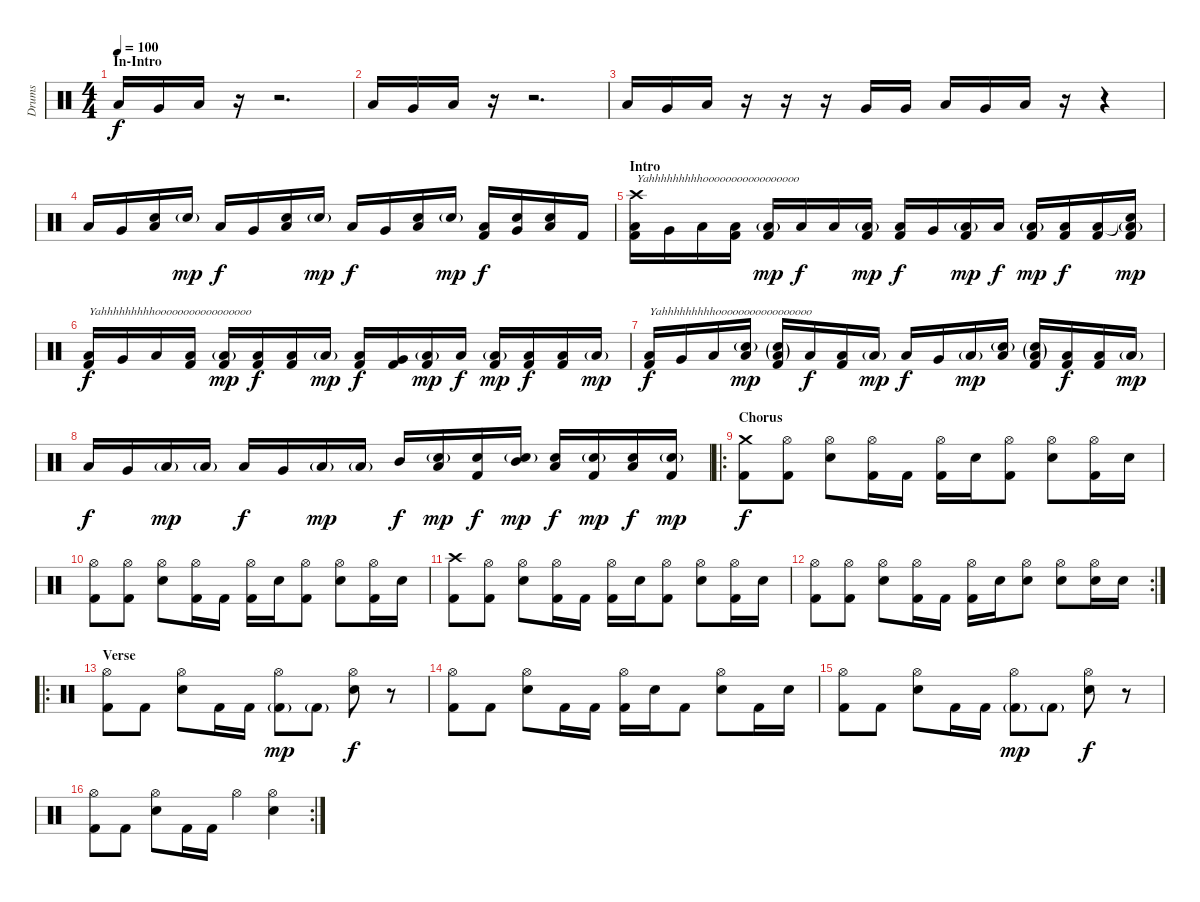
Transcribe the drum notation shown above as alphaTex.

\track ("Drums" "Drums") {instrument percussion}
\staff {score}
\articulation defaults
\ts (4 4)
\section ("" "In-Intro")
\tempo 100
\clef neutral
\ks c "Low Tom (hit)".16{dy f} "Very Low Tom (hit)".16 "Low Floor Tom (hit)".16
r.16 r.2{d} |
"Low Tom (hit)".16 "Very Low Tom (hit)".16 "Low Floor Tom (hit)".16 r.16 r.2{d} |
"Low Tom (hit)".16 "Very Low Tom (hit)".16 "Low Floor Tom (hit)".16 r.16 r.16 r.16 "Very Low Tom (hit)".16 "Very Low Tom (hit)".16 "Low Tom (hit)".16 "Very Low Tom (hit)".16 "Low Floor Tom (hit)".16 r.16 r.4 |
"Low Tom (hit)".16 "Very Low Tom (hit)".16 ("Snare (hit) 2" "Low Floor Tom (hit)").16 "Snare (hit) 2"{g}.16{dy mp} "Low Tom (hit)".16{dy f} "Very Low Tom (hit)".16 ("Snare (hit) 2" "Low Floor Tom (hit)").16 "Snare (hit) 2"{g}.16{dy mp} "Low Tom (hit)".16{dy f} "Very Low Tom (hit)".16 ("Snare (hit) 2" "Low Floor Tom (hit)").16 "Snare (hit) 2"{g}.16{dy mp} ("Kick (hit) 2" "Low Tom (hit)").16{dy f} ("Snare (hit) 2" "Very Low Tom (hit)").16 ("Snare (hit) 2" "Low Floor Tom (hit)").16 "Kick (hit) 2".16 |
\section ("" "Intro")
("Kick (hit) 2" "Crash high (hit)" "Low Tom (hit)").16{txt "Yahhhhhhhhhooooooooooooooooo" volume 10} "Very Low Tom (hit)".16 "Low Floor Tom (hit)".16 ("Kick (hit) 2" "Low Floor Tom (hit)").16 ("Kick (hit) 2" "Low Floor Tom (hit)"{g}).16{dy mp} "Low Floor Tom (hit)".16{dy f} "Low Floor Tom (hit)".16 ("Kick (hit) 2" "Low Floor Tom (hit)"{g}).16{dy mp} ("Kick (hit) 2" "Low Tom (hit)").16{dy f} "Very Low Tom (hit)".16 ("Kick (hit) 2" "Low Floor Tom (hit)"{g}).16{dy mp} "Low Floor Tom (hit)".16{dy f} ("Kick (hit) 2" "Low Floor Tom (hit)"{g}).16{dy mp} ("Kick (hit) 2" "Low Floor Tom (hit)").16{dy f} ("Kick (hit) 2" "Low Floor Tom (hit)").16 ("Kick (hit) 2" "Snare (hit)"{t} "Low Floor Tom (hit)"{g}).16{dy mp} |
("Kick (hit) 2" "Low Tom (hit)").16{txt "Yahhhhhhhhhooooooooooooooooo" dy f volume 12} "Very Low Tom (hit)".16 "Low Floor Tom (hit)".16 ("Kick (hit) 2" "Low Floor Tom (hit)").16 ("Kick (hit) 2" "Low Floor Tom (hit)"{g}).16{dy mp} ("Kick (hit) 2" "Low Floor Tom (hit)").16{dy f} ("Kick (hit) 2" "Low Floor Tom (hit)").16 "Low Floor Tom (hit)"{g}.16{dy mp} ("Kick (hit) 2" "Low Tom (hit)").16{dy f} ("Kick (hit) 2" "Very Low Tom (hit)").16 ("Kick (hit) 2" "Low Floor Tom (hit)"{g}).16{dy mp} "Low Floor Tom (hit)".16{dy f} ("Kick (hit) 2" "Low Floor Tom (hit)"{g}).16{dy mp} ("Kick (hit) 2" "Low Floor Tom (hit)").16{dy f} ("Kick (hit) 2" "Low Floor Tom (hit)").16 "Low Floor Tom (hit)"{g}.16{dy mp} |
("Kick (hit) 2" "Low Tom (hit)").16{txt "Yahhhhhhhhhooooooooooooooooo" dy f volume 14} "Very Low Tom (hit)".16 "Low Floor Tom (hit)".16 ("Snare (hit) 2"{g} "Low Floor Tom (hit)").16{dy mp} ("Kick (hit) 2" "Snare (hit) 2"{g} "Low Floor Tom (hit)"{g}).16 "Low Floor Tom (hit)".16{dy f} ("Kick (hit) 2" "Low Floor Tom (hit)").16 "Low Floor Tom (hit)"{g}.16{dy mp} "Low Tom (hit)".16{dy f} "Very Low Tom (hit)".16 "Low Floor Tom (hit)"{g}.16{dy mp} ("Snare (hit) 2"{g} "Low Floor Tom (hit)").16 ("Kick (hit) 2" "Snare (hit) 2"{g} "Low Floor Tom (hit)"{g}).16 ("Kick (hit) 2" "Low Floor Tom (hit)").16{dy f} ("Kick (hit) 2" "Low Floor Tom (hit)").16 "Low Floor Tom (hit)"{g}.16{dy mp} |
"Low Tom (hit)".16{dy f volume 16} "Very Low Tom (hit)".16 "Low Floor Tom (hit)"{g}.16{dy mp} "Low Floor Tom (hit)"{g}.16 "Low Tom (hit)".16{dy f} "Very Low Tom (hit)".16 "Low Floor Tom (hit)"{g}.16{dy mp} "Low Floor Tom (hit)"{g}.16 "Mid Tom (hit)".16{dy f} ("Snare (hit) 2"{g} "Low Tom (hit)").16{dy mp} ("Snare (hit) 2" "Kick (hit) 2").16{dy f} ("Snare (hit) 2"{g} "Mid Tom (hit)").16{dy mp} ("Snare (hit) 2" "Low Floor Tom (hit)").16{dy f} ("Snare (hit) 2"{g} "Kick (hit) 2").16{dy mp} ("Snare (hit) 2" "Low Floor Tom (hit)").16{dy f} ("Snare (hit) 2"{g} "Kick (hit) 2").16{dy mp} |
\ro
\section ("" "Chorus")
("Crash medium (hit)" "Kick (hit) 2").8{dy f} ("Hi-Hat (open)" "Kick (hit) 2").8 ("Hi-Hat (open)" "Snare (hit) 2").8 ("Hi-Hat (open)" "Kick (hit) 2").16 "Kick (hit) 2".16 ("Hi-Hat (open)" "Kick (hit) 2").16 "Snare (hit) 2".16 ("Hi-Hat (open)" "Kick (hit) 2").8 ("Hi-Hat (open)" "Snare (hit) 2").8 ("Hi-Hat (open)" "Kick (hit) 2").16 "Snare (hit) 2".16 |
("Hi-Hat (open)" "Kick (hit) 2").8 ("Hi-Hat (open)" "Kick (hit) 2").8 ("Hi-Hat (open)" "Snare (hit) 2").8 ("Hi-Hat (open)" "Kick (hit) 2").16 "Kick (hit) 2".16 ("Hi-Hat (open)" "Kick (hit) 2").16 "Snare (hit) 2".16 ("Hi-Hat (open)" "Kick (hit) 2").8 ("Hi-Hat (open)" "Snare (hit) 2").8 ("Hi-Hat (open)" "Kick (hit) 2").16 "Snare (hit) 2".16 |
("Crash high (hit)" "Kick (hit) 2").8 ("Hi-Hat (open)" "Kick (hit) 2").8 ("Hi-Hat (open)" "Snare (hit) 2").8 ("Hi-Hat (open)" "Kick (hit) 2").16 "Kick (hit) 2".16 ("Hi-Hat (open)" "Kick (hit) 2").16 "Snare (hit) 2".16 ("Hi-Hat (open)" "Kick (hit) 2").8 ("Hi-Hat (open)" "Snare (hit) 2").8 ("Hi-Hat (open)" "Kick (hit) 2").16 "Snare (hit) 2".16 |
\rc 2
("Hi-Hat (open)" "Kick (hit) 2").8 ("Hi-Hat (open)" "Kick (hit) 2").8 ("Hi-Hat (open)" "Snare (hit) 2").8 ("Hi-Hat (open)" "Kick (hit) 2").16 "Kick (hit) 2".16 ("Hi-Hat (open)" "Kick (hit) 2").16 "Snare (hit) 2".16 ("Hi-Hat (open)" "Snare (hit) 2").8 ("Hi-Hat (open)" "Snare (hit) 2").8 ("Hi-Hat (open)" "Snare (hit) 2").16 "Snare (hit) 2".16 |
\ro
\section ("" "Verse")
("Hi-Hat (open)" "Kick (hit) 2").8 "Kick (hit) 2".8 ("Hi-Hat (open)" "Snare (hit) 2").8 "Kick (hit) 2".16 "Kick (hit) 2".16 ("Hi-Hat (open)" "Kick (hit) 2"{g}).8{dy mp} "Kick (hit) 2"{g}.8 ("Hi-Hat (open)" "Snare (hit) 2").8{dy f} r.8 |
("Hi-Hat (open)" "Kick (hit) 2").8 "Kick (hit) 2".8 ("Hi-Hat (open)" "Snare (hit) 2").8 "Kick (hit) 2".16 "Kick (hit) 2".16 ("Hi-Hat (open)" "Kick (hit) 2").16 "Snare (hit) 2".16 "Kick (hit) 2".8 ("Hi-Hat (open)" "Snare (hit) 2").8 "Kick (hit) 2".16 "Snare (hit) 2".16 |
("Hi-Hat (open)" "Kick (hit) 2").8 "Kick (hit) 2".8 ("Hi-Hat (open)" "Snare (hit) 2").8 "Kick (hit) 2".16 "Kick (hit) 2".16 ("Hi-Hat (open)" "Kick (hit) 2"{g}).8{dy mp} "Kick (hit) 2"{g}.8 ("Hi-Hat (open)" "Snare (hit) 2").8{dy f} r.8 |
\rc 2
("Hi-Hat (open)" "Kick (hit) 2").8 "Kick (hit) 2".8 ("Hi-Hat (open)" "Snare (hit) 2").8 "Kick (hit) 2".16 "Kick (hit) 2".16 "Hi-Hat (open)".4 ("Hi-Hat (open)" "Snare (hit) 2").4
